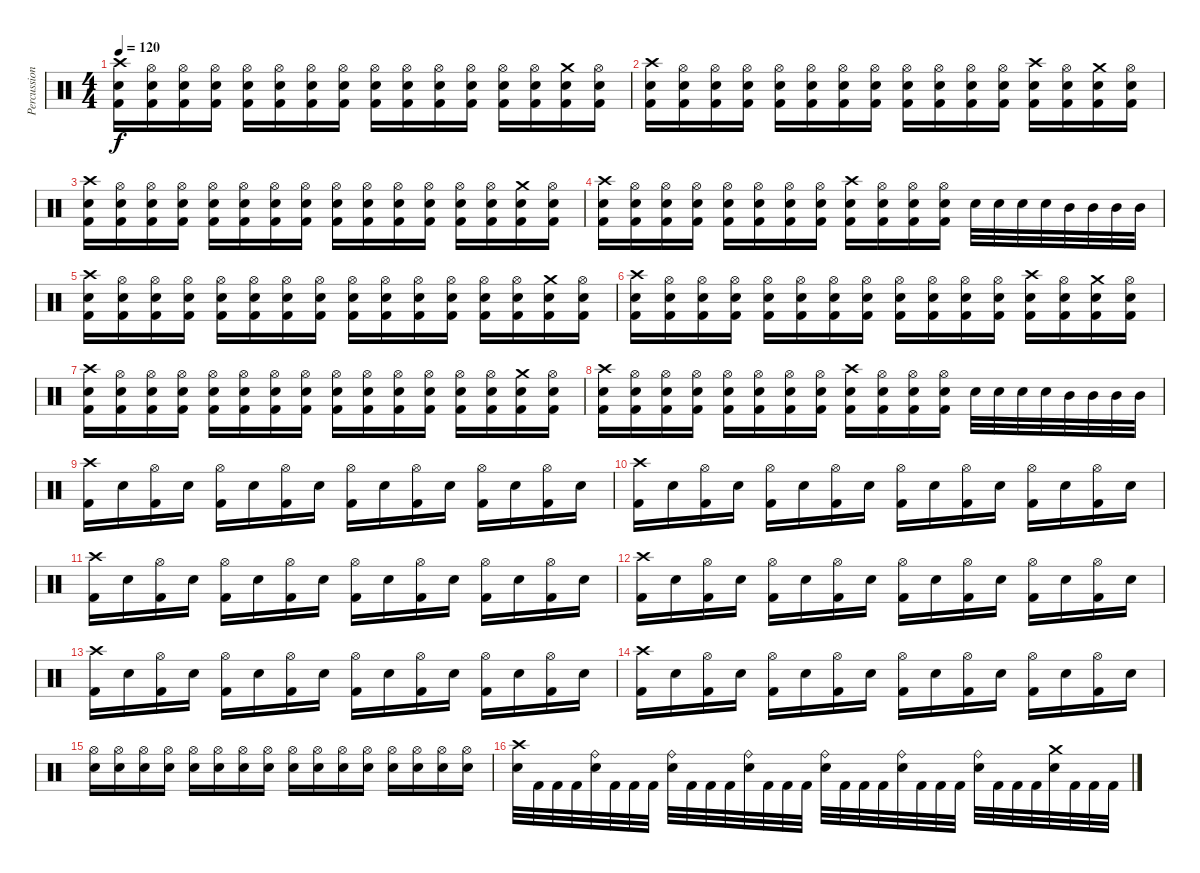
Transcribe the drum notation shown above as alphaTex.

\track ("Percussion" "Percussion") {instrument percussion}
\staff {score}
\articulation defaults
\ts (4 4)
\tempo 120
\clef neutral
\ks c
("Crash high (hit)" "Electric Snare (hit)" "Kick (hit) 2").16{dy f} ("Hi-Hat (open)" "Electric Snare (hit)" "Kick (hit) 2").16 ("Hi-Hat (open)" "Electric Snare (hit)" "Kick (hit) 2").16 ("Hi-Hat (open)" "Electric Snare (hit)" "Kick (hit) 2").16 ("Hi-Hat (open)" "Electric Snare (hit)" "Kick (hit) 2").16 ("Hi-Hat (open)" "Electric Snare (hit)" "Kick (hit) 2").16 ("Hi-Hat (open)" "Electric Snare (hit)" "Kick (hit) 2").16 ("Hi-Hat (open)" "Electric Snare (hit)" "Kick (hit) 2").16 ("Hi-Hat (open)" "Electric Snare (hit)" "Kick (hit) 2").16 ("Hi-Hat (open)" "Electric Snare (hit)" "Kick (hit) 2").16 ("Hi-Hat (open)" "Electric Snare (hit)" "Kick (hit) 2").16 ("Hi-Hat (open)" "Electric Snare (hit)" "Kick (hit) 2").16 ("Hi-Hat (open)" "Electric Snare (hit)" "Kick (hit) 2").16 ("Hi-Hat (open)" "Electric Snare (hit)" "Kick (hit) 2").16 ("Crash medium (hit)" "Electric Snare (hit)" "Kick (hit) 2").16 ("Hi-Hat (open)" "Electric Snare (hit)" "Kick (hit) 2").16 |
("Crash high (hit)" "Electric Snare (hit)" "Kick (hit) 2").16 ("Hi-Hat (open)" "Electric Snare (hit)" "Kick (hit) 2").16 ("Hi-Hat (open)" "Electric Snare (hit)" "Kick (hit) 2").16 ("Hi-Hat (open)" "Electric Snare (hit)" "Kick (hit) 2").16 ("Hi-Hat (open)" "Electric Snare (hit)" "Kick (hit) 2").16 ("Hi-Hat (open)" "Electric Snare (hit)" "Kick (hit) 2").16 ("Hi-Hat (open)" "Electric Snare (hit)" "Kick (hit) 2").16 ("Hi-Hat (open)" "Electric Snare (hit)" "Kick (hit) 2").16 ("Hi-Hat (open)" "Electric Snare (hit)" "Kick (hit) 2").16 ("Hi-Hat (open)" "Electric Snare (hit)" "Kick (hit) 2").16 ("Hi-Hat (open)" "Electric Snare (hit)" "Kick (hit) 2").16 ("Hi-Hat (open)" "Electric Snare (hit)" "Kick (hit) 2").16 ("Crash high (hit)" "Electric Snare (hit)" "Kick (hit) 2").16 ("Hi-Hat (open)" "Electric Snare (hit)" "Kick (hit) 2").16 ("Crash medium (hit)" "Electric Snare (hit)" "Kick (hit) 2").16 ("Hi-Hat (open)" "Electric Snare (hit)" "Kick (hit) 2").16 |
("Crash high (hit)" "Electric Snare (hit)" "Kick (hit) 2").16 ("Hi-Hat (open)" "Electric Snare (hit)" "Kick (hit) 2").16 ("Hi-Hat (open)" "Electric Snare (hit)" "Kick (hit) 2").16 ("Hi-Hat (open)" "Electric Snare (hit)" "Kick (hit) 2").16 ("Hi-Hat (open)" "Electric Snare (hit)" "Kick (hit) 2").16 ("Hi-Hat (open)" "Electric Snare (hit)" "Kick (hit) 2").16 ("Hi-Hat (open)" "Electric Snare (hit)" "Kick (hit) 2").16 ("Hi-Hat (open)" "Electric Snare (hit)" "Kick (hit) 2").16 ("Hi-Hat (open)" "Electric Snare (hit)" "Kick (hit) 2").16 ("Hi-Hat (open)" "Electric Snare (hit)" "Kick (hit) 2").16 ("Hi-Hat (open)" "Electric Snare (hit)" "Kick (hit) 2").16 ("Hi-Hat (open)" "Electric Snare (hit)" "Kick (hit) 2").16 ("Hi-Hat (open)" "Electric Snare (hit)" "Kick (hit) 2").16 ("Hi-Hat (open)" "Electric Snare (hit)" "Kick (hit) 2").16 ("Crash medium (hit)" "Electric Snare (hit)" "Kick (hit) 2").16 ("Hi-Hat (open)" "Electric Snare (hit)" "Kick (hit) 2").16 |
("Crash high (hit)" "Electric Snare (hit)" "Kick (hit) 2").16 ("Hi-Hat (open)" "Electric Snare (hit)" "Kick (hit) 2").16 ("Hi-Hat (open)" "Electric Snare (hit)" "Kick (hit) 2").16 ("Hi-Hat (open)" "Electric Snare (hit)" "Kick (hit) 2").16 ("Hi-Hat (open)" "Electric Snare (hit)" "Kick (hit) 2").16 ("Hi-Hat (open)" "Electric Snare (hit)" "Kick (hit) 2").16 ("Hi-Hat (open)" "Electric Snare (hit)" "Kick (hit) 2").16 ("Hi-Hat (open)" "Electric Snare (hit)" "Kick (hit) 2").16 ("Crash high (hit)" "Electric Snare (hit)" "Kick (hit) 2").16 ("Hi-Hat (open)" "Electric Snare (hit)" "Kick (hit) 2").16 ("Hi-Hat (open)" "Electric Snare (hit)" "Kick (hit) 2").16 ("Hi-Hat (open)" "Electric Snare (hit)" "Kick (hit) 2").16 "Electric Snare (hit)".32 "Electric Snare (hit)".32 "Electric Snare (hit)".32 "Electric Snare (hit)".32 "Mid Tom (hit)".32 "Mid Tom (hit)".32 "Mid Tom (hit)".32 "Mid Tom (hit)".32 |
("Crash high (hit)" "Electric Snare (hit)" "Kick (hit) 2").16 ("Hi-Hat (open)" "Electric Snare (hit)" "Kick (hit) 2").16 ("Hi-Hat (open)" "Electric Snare (hit)" "Kick (hit) 2").16 ("Hi-Hat (open)" "Electric Snare (hit)" "Kick (hit) 2").16 ("Hi-Hat (open)" "Electric Snare (hit)" "Kick (hit) 2").16 ("Hi-Hat (open)" "Electric Snare (hit)" "Kick (hit) 2").16 ("Hi-Hat (open)" "Electric Snare (hit)" "Kick (hit) 2").16 ("Hi-Hat (open)" "Electric Snare (hit)" "Kick (hit) 2").16 ("Hi-Hat (open)" "Electric Snare (hit)" "Kick (hit) 2").16 ("Hi-Hat (open)" "Electric Snare (hit)" "Kick (hit) 2").16 ("Hi-Hat (open)" "Electric Snare (hit)" "Kick (hit) 2").16 ("Hi-Hat (open)" "Electric Snare (hit)" "Kick (hit) 2").16 ("Hi-Hat (open)" "Electric Snare (hit)" "Kick (hit) 2").16 ("Hi-Hat (open)" "Electric Snare (hit)" "Kick (hit) 2").16 ("Crash medium (hit)" "Electric Snare (hit)" "Kick (hit) 2").16 ("Hi-Hat (open)" "Electric Snare (hit)" "Kick (hit) 2").16 |
("Crash high (hit)" "Electric Snare (hit)" "Kick (hit) 2").16 ("Hi-Hat (open)" "Electric Snare (hit)" "Kick (hit) 2").16 ("Hi-Hat (open)" "Electric Snare (hit)" "Kick (hit) 2").16 ("Hi-Hat (open)" "Electric Snare (hit)" "Kick (hit) 2").16 ("Hi-Hat (open)" "Electric Snare (hit)" "Kick (hit) 2").16 ("Hi-Hat (open)" "Electric Snare (hit)" "Kick (hit) 2").16 ("Hi-Hat (open)" "Electric Snare (hit)" "Kick (hit) 2").16 ("Hi-Hat (open)" "Electric Snare (hit)" "Kick (hit) 2").16 ("Hi-Hat (open)" "Electric Snare (hit)" "Kick (hit) 2").16 ("Hi-Hat (open)" "Electric Snare (hit)" "Kick (hit) 2").16 ("Hi-Hat (open)" "Electric Snare (hit)" "Kick (hit) 2").16 ("Hi-Hat (open)" "Electric Snare (hit)" "Kick (hit) 2").16 ("Crash high (hit)" "Electric Snare (hit)" "Kick (hit) 2").16 ("Hi-Hat (open)" "Electric Snare (hit)" "Kick (hit) 2").16 ("Crash medium (hit)" "Electric Snare (hit)" "Kick (hit) 2").16 ("Hi-Hat (open)" "Electric Snare (hit)" "Kick (hit) 2").16 |
("Crash high (hit)" "Electric Snare (hit)" "Kick (hit) 2").16 ("Hi-Hat (open)" "Electric Snare (hit)" "Kick (hit) 2").16 ("Hi-Hat (open)" "Electric Snare (hit)" "Kick (hit) 2").16 ("Hi-Hat (open)" "Electric Snare (hit)" "Kick (hit) 2").16 ("Hi-Hat (open)" "Electric Snare (hit)" "Kick (hit) 2").16 ("Hi-Hat (open)" "Electric Snare (hit)" "Kick (hit) 2").16 ("Hi-Hat (open)" "Electric Snare (hit)" "Kick (hit) 2").16 ("Hi-Hat (open)" "Electric Snare (hit)" "Kick (hit) 2").16 ("Hi-Hat (open)" "Electric Snare (hit)" "Kick (hit) 2").16 ("Hi-Hat (open)" "Electric Snare (hit)" "Kick (hit) 2").16 ("Hi-Hat (open)" "Electric Snare (hit)" "Kick (hit) 2").16 ("Hi-Hat (open)" "Electric Snare (hit)" "Kick (hit) 2").16 ("Hi-Hat (open)" "Electric Snare (hit)" "Kick (hit) 2").16 ("Hi-Hat (open)" "Electric Snare (hit)" "Kick (hit) 2").16 ("Crash medium (hit)" "Electric Snare (hit)" "Kick (hit) 2").16 ("Hi-Hat (open)" "Electric Snare (hit)" "Kick (hit) 2").16 |
("Crash high (hit)" "Electric Snare (hit)" "Kick (hit) 2").16 ("Hi-Hat (open)" "Electric Snare (hit)" "Kick (hit) 2").16 ("Hi-Hat (open)" "Electric Snare (hit)" "Kick (hit) 2").16 ("Hi-Hat (open)" "Electric Snare (hit)" "Kick (hit) 2").16 ("Hi-Hat (open)" "Electric Snare (hit)" "Kick (hit) 2").16 ("Hi-Hat (open)" "Electric Snare (hit)" "Kick (hit) 2").16 ("Hi-Hat (open)" "Electric Snare (hit)" "Kick (hit) 2").16 ("Hi-Hat (open)" "Electric Snare (hit)" "Kick (hit) 2").16 ("Crash high (hit)" "Electric Snare (hit)" "Kick (hit) 2").16 ("Hi-Hat (open)" "Electric Snare (hit)" "Kick (hit) 2").16 ("Hi-Hat (open)" "Electric Snare (hit)" "Kick (hit) 2").16 ("Hi-Hat (open)" "Electric Snare (hit)" "Kick (hit) 2").16 "Electric Snare (hit)".32 "Electric Snare (hit)".32 "Electric Snare (hit)".32 "Electric Snare (hit)".32 "Mid Tom (hit)".32 "Mid Tom (hit)".32 "Mid Tom (hit)".32 "Mid Tom (hit)".32 |
("Crash high (hit)" "Kick (hit) 2").16 "Electric Snare (hit)".16 ("Hi-Hat (open)" "Kick (hit) 2").16 "Electric Snare (hit)".16 ("Hi-Hat (open)" "Kick (hit) 2").16 "Electric Snare (hit)".16 ("Hi-Hat (open)" "Kick (hit) 2").16 "Electric Snare (hit)".16 ("Hi-Hat (open)" "Kick (hit) 2").16 "Electric Snare (hit)".16 ("Hi-Hat (open)" "Kick (hit) 2").16 "Electric Snare (hit)".16 ("Hi-Hat (open)" "Kick (hit) 2").16 "Electric Snare (hit)".16 ("Hi-Hat (open)" "Kick (hit) 2").16 "Electric Snare (hit)".16 |
("Crash high (hit)" "Kick (hit) 2").16 "Electric Snare (hit)".16 ("Hi-Hat (open)" "Kick (hit) 2").16 "Electric Snare (hit)".16 ("Hi-Hat (open)" "Kick (hit) 2").16 "Electric Snare (hit)".16 ("Hi-Hat (open)" "Kick (hit) 2").16 "Electric Snare (hit)".16 ("Hi-Hat (open)" "Kick (hit) 2").16 "Electric Snare (hit)".16 ("Hi-Hat (open)" "Kick (hit) 2").16 "Electric Snare (hit)".16 ("Hi-Hat (open)" "Kick (hit) 2").16 "Electric Snare (hit)".16 ("Hi-Hat (open)" "Kick (hit) 2").16 "Electric Snare (hit)".16 |
("Crash high (hit)" "Kick (hit) 2").16 "Electric Snare (hit)".16 ("Hi-Hat (open)" "Kick (hit) 2").16 "Electric Snare (hit)".16 ("Hi-Hat (open)" "Kick (hit) 2").16 "Electric Snare (hit)".16 ("Hi-Hat (open)" "Kick (hit) 2").16 "Electric Snare (hit)".16 ("Hi-Hat (open)" "Kick (hit) 2").16 "Electric Snare (hit)".16 ("Hi-Hat (open)" "Kick (hit) 2").16 "Electric Snare (hit)".16 ("Hi-Hat (open)" "Kick (hit) 2").16 "Electric Snare (hit)".16 ("Hi-Hat (open)" "Kick (hit) 2").16 "Electric Snare (hit)".16 |
("Crash high (hit)" "Kick (hit) 2").16 "Electric Snare (hit)".16 ("Hi-Hat (open)" "Kick (hit) 2").16 "Electric Snare (hit)".16 ("Hi-Hat (open)" "Kick (hit) 2").16 "Electric Snare (hit)".16 ("Hi-Hat (open)" "Kick (hit) 2").16 "Electric Snare (hit)".16 ("Hi-Hat (open)" "Kick (hit) 2").16 "Electric Snare (hit)".16 ("Hi-Hat (open)" "Kick (hit) 2").16 "Electric Snare (hit)".16 ("Hi-Hat (open)" "Kick (hit) 2").16 "Electric Snare (hit)".16 ("Hi-Hat (open)" "Kick (hit) 2").16 "Electric Snare (hit)".16 |
("Crash high (hit)" "Kick (hit) 2").16 "Electric Snare (hit)".16 ("Hi-Hat (open)" "Kick (hit) 2").16 "Electric Snare (hit)".16 ("Hi-Hat (open)" "Kick (hit) 2").16 "Electric Snare (hit)".16 ("Hi-Hat (open)" "Kick (hit) 2").16 "Electric Snare (hit)".16 ("Hi-Hat (open)" "Kick (hit) 2").16 "Electric Snare (hit)".16 ("Hi-Hat (open)" "Kick (hit) 2").16 "Electric Snare (hit)".16 ("Hi-Hat (open)" "Kick (hit) 2").16 "Electric Snare (hit)".16 ("Hi-Hat (open)" "Kick (hit) 2").16 "Electric Snare (hit)".16 |
("Crash high (hit)" "Kick (hit) 2").16 "Electric Snare (hit)".16 ("Hi-Hat (open)" "Kick (hit) 2").16 "Electric Snare (hit)".16 ("Hi-Hat (open)" "Kick (hit) 2").16 "Electric Snare (hit)".16 ("Hi-Hat (open)" "Kick (hit) 2").16 "Electric Snare (hit)".16 ("Hi-Hat (open)" "Kick (hit) 2").16 "Electric Snare (hit)".16 ("Hi-Hat (open)" "Kick (hit) 2").16 "Electric Snare (hit)".16 ("Hi-Hat (open)" "Kick (hit) 2").16 "Electric Snare (hit)".16 ("Hi-Hat (open)" "Kick (hit) 2").16 "Electric Snare (hit)".16 |
("Hi-Hat (open)" "Electric Snare (hit)").16 ("Hi-Hat (open)" "Electric Snare (hit)").16 ("Hi-Hat (open)" "Electric Snare (hit)").16 ("Hi-Hat (open)" "Electric Snare (hit)").16 ("Hi-Hat (open)" "Electric Snare (hit)").16 ("Hi-Hat (open)" "Electric Snare (hit)").16 ("Hi-Hat (open)" "Electric Snare (hit)").16 ("Hi-Hat (open)" "Electric Snare (hit)").16 ("Hi-Hat (open)" "Electric Snare (hit)").16 ("Hi-Hat (open)" "Electric Snare (hit)").16 ("Hi-Hat (open)" "Electric Snare (hit)").16 ("Hi-Hat (open)" "Electric Snare (hit)").16 ("Hi-Hat (open)" "Electric Snare (hit)").16 ("Hi-Hat (open)" "Electric Snare (hit)").16 ("Hi-Hat (open)" "Electric Snare (hit)").16 ("Hi-Hat (open)" "Electric Snare (hit)").16 |
("Crash high (hit)" "Electric Snare (hit)").32 "Kick (hit) 2".32 "Kick (hit) 2".32 "Kick (hit) 2".32 ("Ride (bell)" "Electric Snare (hit)").32 "Kick (hit) 2".32 "Kick (hit) 2".32 "Kick (hit) 2".32 ("Ride (bell)" "Electric Snare (hit)").32 "Kick (hit) 2".32 "Kick (hit) 2".32 "Kick (hit) 2".32 ("Ride (bell)" "Electric Snare (hit)").32 "Kick (hit) 2".32 "Kick (hit) 2".32 "Kick (hit) 2".32 ("Ride (bell)" "Electric Snare (hit)").32 "Kick (hit) 2".32 "Kick (hit) 2".32 "Kick (hit) 2".32 ("Ride (bell)" "Electric Snare (hit)").32 "Kick (hit) 2".32 "Kick (hit) 2".32 "Kick (hit) 2".32 ("Ride (bell)" "Electric Snare (hit)").32 "Kick (hit) 2".32 "Kick (hit) 2".32 "Kick (hit) 2".32 ("Crash medium (hit)" "Electric Snare (hit)").32 "Kick (hit) 2".32 "Kick (hit) 2".32 "Kick (hit) 2".32
